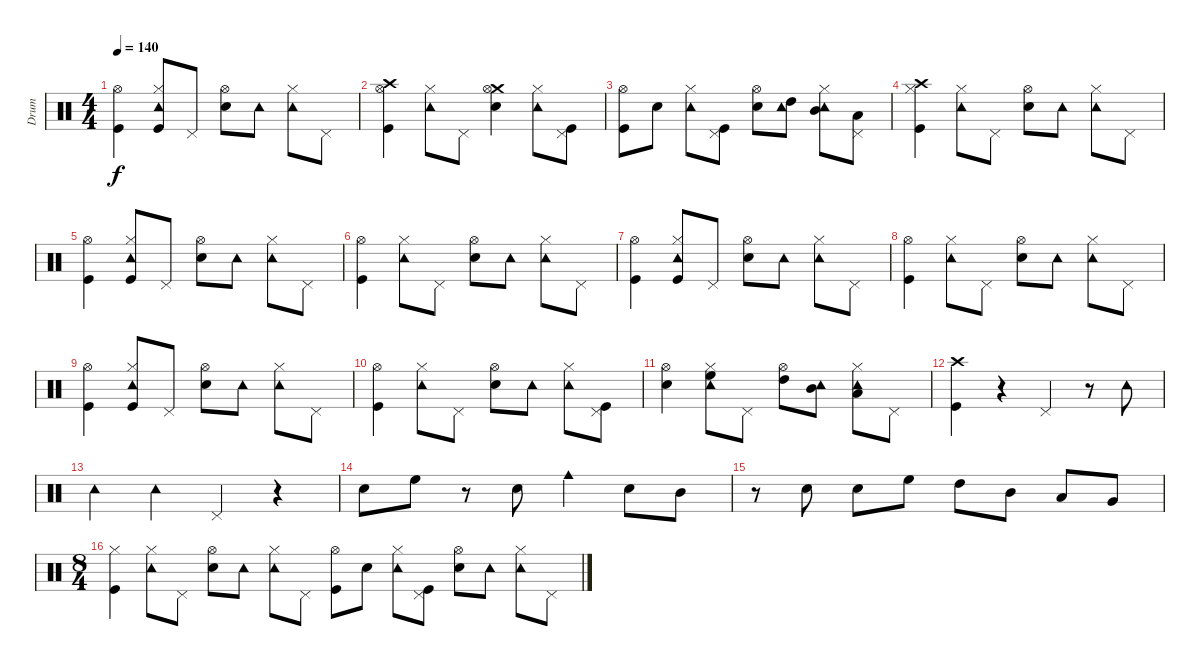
\track ("Drum" "Drum") {instrument percussion}
\staff {score}
\articulation defaults
\ts (4 4)
\tempo 140
\clef neutral
\ks c
("Kick (hit)" "Hi-Hat (open)").4{dy f} ("Hi-Hat (closed)" "Tambourine (hit)" "Kick (hit)").8 "Pedal Hi-Hat (hit)".8 ("Snare (hit) 2" "Hi-Hat (open)").8 "Tambourine (hit)".8 ("Hi-Hat (closed)" "Tambourine (hit)").8 "Pedal Hi-Hat (hit)".8 |
("Kick (hit)" "Crash high (hit)" "Hi-Hat (open)").4 ("Hi-Hat (closed)" "Tambourine (hit)").8 "Pedal Hi-Hat (hit)".8 ("Snare (hit) 2" "Crash medium (hit)" "Hi-Hat (open)").4 ("Hi-Hat (closed)" "Tambourine (hit)").8 ("Pedal Hi-Hat (hit)" "Kick (hit)").8 |
("Kick (hit)" "Hi-Hat (open)").8 "Snare (hit) 2".8 ("Tambourine (hit)" "Hi-Hat (closed)").8 ("Kick (hit)" "Pedal Hi-Hat (hit)").8 ("Snare (hit) 2" "Hi-Hat (open)").8 ("High Tom (hit)" "Tambourine (hit)").8 ("Mid Tom (hit)" "Hi-Hat (closed)" "Tambourine (hit)").8 ("Low Tom (hit)" "Pedal Hi-Hat (hit)").8 |
("Kick (hit)" "Hi-Hat (closed)" "Crash high (hit)").4 ("Hi-Hat (closed)" "Tambourine (hit)").8 "Pedal Hi-Hat (hit)".8 ("Snare (hit) 2" "Hi-Hat (open)").8 "Tambourine (hit)".8 ("Hi-Hat (closed)" "Tambourine (hit)").8 "Pedal Hi-Hat (hit)".8 |
("Kick (hit)" "Hi-Hat (open)").4 ("Hi-Hat (closed)" "Tambourine (hit)" "Kick (hit)").8 "Pedal Hi-Hat (hit)".8 ("Snare (hit) 2" "Hi-Hat (open)").8 "Tambourine (hit)".8 ("Hi-Hat (closed)" "Tambourine (hit)").8 "Pedal Hi-Hat (hit)".8 |
("Kick (hit)" "Hi-Hat (open)").4 ("Hi-Hat (closed)" "Tambourine (hit)").8 "Pedal Hi-Hat (hit)".8 ("Snare (hit) 2" "Hi-Hat (open)").8 "Tambourine (hit)".8 ("Hi-Hat (closed)" "Tambourine (hit)").8 "Pedal Hi-Hat (hit)".8 |
("Kick (hit)" "Hi-Hat (open)").4 ("Hi-Hat (closed)" "Tambourine (hit)" "Kick (hit)").8 "Pedal Hi-Hat (hit)".8 ("Snare (hit) 2" "Hi-Hat (open)").8 "Tambourine (hit)".8 ("Hi-Hat (closed)" "Tambourine (hit)").8 "Pedal Hi-Hat (hit)".8 |
("Kick (hit)" "Hi-Hat (open)").4 ("Hi-Hat (closed)" "Tambourine (hit)").8 "Pedal Hi-Hat (hit)".8 ("Snare (hit) 2" "Hi-Hat (open)").8 "Tambourine (hit)".8 ("Hi-Hat (closed)" "Tambourine (hit)").8 "Pedal Hi-Hat (hit)".8 |
("Kick (hit)" "Hi-Hat (open)").4 ("Hi-Hat (closed)" "Tambourine (hit)" "Kick (hit)").8 "Pedal Hi-Hat (hit)".8 ("Snare (hit) 2" "Hi-Hat (open)").8 "Tambourine (hit)".8 ("Hi-Hat (closed)" "Tambourine (hit)").8 "Pedal Hi-Hat (hit)".8 |
("Kick (hit)" "Hi-Hat (open)").4 ("Hi-Hat (closed)" "Tambourine (hit)").8 "Pedal Hi-Hat (hit)".8 ("Snare (hit) 2" "Hi-Hat (open)").8 "Tambourine (hit)".8 ("Hi-Hat (closed)" "Tambourine (hit)").8 ("Pedal Hi-Hat (hit)" "Kick (hit)").8 |
("Snare (hit) 2" "Hi-Hat (open)").4 ("High Floor Tom (hit)" "Hi-Hat (closed)" "Tambourine (hit)").8 "Pedal Hi-Hat (hit)".8 ("High Tom (hit)" "Hi-Hat (open)").8 ("Mid Tom (hit)" "Tambourine (hit)").8 ("Low Tom (hit)" "Hi-Hat (closed)" "Tambourine (hit)").8 "Pedal Hi-Hat (hit)".8 |
("Kick (hit)" "Crash high (hit)").4 r.4 "Pedal Hi-Hat (hit)".4 r.8 "Tambourine (hit)".8 |
"Tambourine (hit)".4 "Tambourine (hit)".4 "Pedal Hi-Hat (hit)".4 r.4 |
"Snare (hit) 2".8 "High Floor Tom (hit)".8 r.8 "Snare (hit) 2".8 "Cowbell medium (hit)".4 "Snare (hit) 2".8 "Mid Tom (hit)".8 |
r.8 "Snare (hit) 2".8 "Snare (hit) 2".8 "High Floor Tom (hit)".8 "High Tom (hit)".8 "Mid Tom (hit)".8 "Low Tom (hit)".8 "Very Low Tom (hit)".8 |
\ts (8 4)
("Kick (hit)" "Hi-Hat (closed)").4 ("Hi-Hat (closed)" "Tambourine (hit)").8 "Pedal Hi-Hat (hit)".8 ("Snare (hit) 2" "Hi-Hat (open)").8 "Tambourine (hit)".8 ("Hi-Hat (closed)" "Tambourine (hit)").8 "Pedal Hi-Hat (hit)".8 ("Kick (hit)" "Hi-Hat (open)").8 "Snare (hit) 2".8 ("Hi-Hat (closed)" "Tambourine (hit)").8 ("Kick (hit)" "Pedal Hi-Hat (hit)").8 ("Snare (hit) 2" "Hi-Hat (open)").8 "Tambourine (hit)".8 ("Hi-Hat (closed)" "Tambourine (hit)").8 "Pedal Hi-Hat (hit)".8
